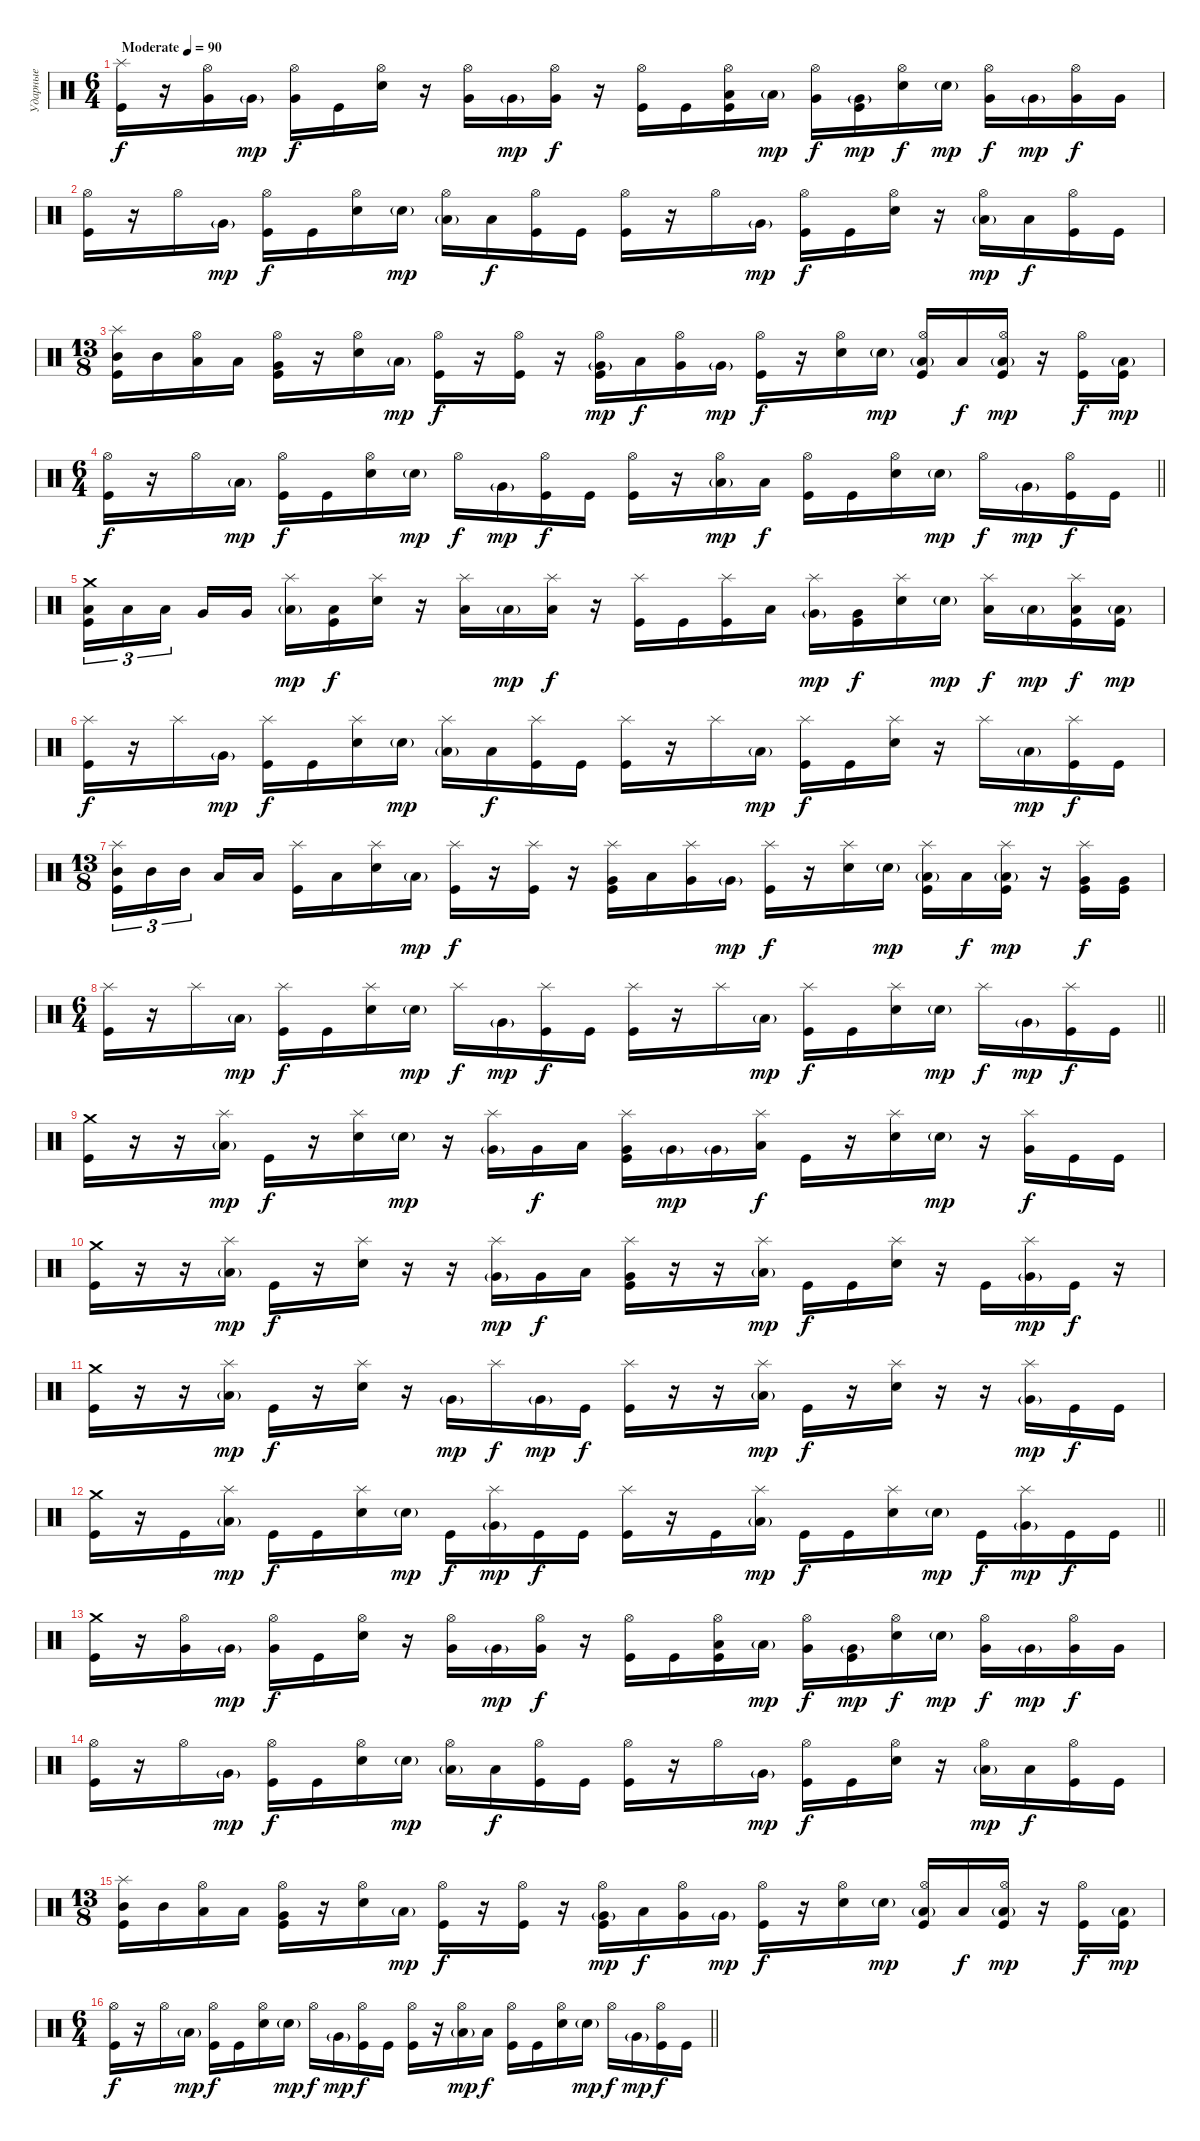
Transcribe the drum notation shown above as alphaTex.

\track ("Ударные" "Ударные") {instrument percussion}
\staff {score}
\articulation defaults
\ts (6 4)
\tempo (90 "Moderate")
\clef neutral
\ks c
("Splash (hit)" "Kick (hit)").16{dy f} r.16 ("Hi-Hat (open)" "Very Low Tom (hit)").16 "Very Low Tom (hit)"{g}.16{dy mp} ("Hi-Hat (open)" "Very Low Tom (hit)").16{dy f} "Kick (hit)".16 ("Hi-Hat (open)" "Electric Snare (hit)").16 r.16 ("Hi-Hat (open)" "Very Low Tom (hit)").16 "Very Low Tom (hit)"{g}.16{dy mp} ("Hi-Hat (open)" "Very Low Tom (hit)").16{dy f} r.16 ("Hi-Hat (open)" "Kick (hit)").16 "Kick (hit)".16 ("Hi-Hat (open)" "Low Tom (hit)" "Kick (hit)").16 "Low Tom (hit)"{g}.16{dy mp} ("Hi-Hat (open)" "Very Low Tom (hit)").16{dy f} ("Very Low Tom (hit)"{g} "Kick (hit)").16{dy mp} ("Hi-Hat (open)" "Electric Snare (hit)").16{dy f} "Electric Snare (hit)"{g}.16{dy mp} ("Hi-Hat (open)" "Very Low Tom (hit)").16{dy f} "Very Low Tom (hit)"{g}.16{dy mp} ("Hi-Hat (open)" "Very Low Tom (hit)").16{dy f} "Very Low Tom (hit)".16 |
("Hi-Hat (open)" "Kick (hit)").16 r.16 "Hi-Hat (open)".16 "Very Low Tom (hit)"{g}.16{dy mp} ("Hi-Hat (open)" "Kick (hit)").16{dy f} "Kick (hit)".16 ("Hi-Hat (open)" "Electric Snare (hit)").16 "Electric Snare (hit)"{g}.16{dy mp} ("Hi-Hat (open)" "Low Floor Tom (hit)"{g}).16 "Low Floor Tom (hit)".16{dy f} ("Hi-Hat (open)" "Kick (hit)").16 "Kick (hit)".16 ("Hi-Hat (open)" "Kick (hit)").16 r.16 "Hi-Hat (open)".16 "Very Low Tom (hit)"{g}.16{dy mp} ("Hi-Hat (open)" "Kick (hit)").16{dy f} "Kick (hit)".16 ("Hi-Hat (open)" "Electric Snare (hit)").16 r.16 ("Hi-Hat (open)" "Low Floor Tom (hit)"{g}).16{dy mp} "Low Floor Tom (hit)".16{dy f} ("Hi-Hat (open)" "Kick (hit)").16 "Kick (hit)".16 |
\ts (13 8)
("Splash (hit)" "Mid Tom (hit)" "Kick (hit)").16 "Mid Tom (hit)".16 ("Hi-Hat (open)" "Low Tom (hit)").16 "Low Tom (hit)".16 ("Hi-Hat (open)" "Very Low Tom (hit)" "Kick (hit)").16 r.16 ("Hi-Hat (open)" "Electric Snare (hit)").16 "Low Tom (hit)"{g}.16{dy mp} ("Hi-Hat (open)" "Kick (hit)").16{dy f} r.16 ("Hi-Hat (open)" "Kick (hit)").16 r.16 ("Hi-Hat (open)" "Very Low Tom (hit)"{g} "Kick (hit)").16{dy mp} "Low Floor Tom (hit)".16{dy f} ("Hi-Hat (open)" "Very Low Tom (hit)").16 "Very Low Tom (hit)"{g}.16{dy mp} ("Hi-Hat (open)" "Kick (hit)").16{dy f} r.16 ("Hi-Hat (open)" "Electric Snare (hit)").16 "Electric Snare (hit)"{g}.16{dy mp} ("Hi-Hat (open)" "Low Tom (hit)"{g} "Kick (hit)").16 "Low Tom (hit)".16{dy f} ("Hi-Hat (open)" "Low Tom (hit)"{g} "Kick (hit)").16{dy mp} r.16 ("Hi-Hat (open)" "Kick (hit)").16{dy f} ("Low Tom (hit)"{g} "Kick (hit)").16{dy mp} |
\ts (6 4)
\barLineRight lightlight
("Hi-Hat (open)" "Kick (hit)").16{dy f} r.16 "Hi-Hat (open)".16 "Low Floor Tom (hit)"{g}.16{dy mp} ("Hi-Hat (open)" "Kick (hit)").16{dy f} "Kick (hit)".16 ("Hi-Hat (open)" "Electric Snare (hit)").16 "Electric Snare (hit)"{g}.16{dy mp} "Hi-Hat (open)".16{dy f} "Very Low Tom (hit)"{g}.16{dy mp} ("Hi-Hat (open)" "Kick (hit)").16{dy f} "Kick (hit)".16 ("Hi-Hat (open)" "Kick (hit)").16 r.16 ("Hi-Hat (open)" "Low Floor Tom (hit)"{g}).16{dy mp} "Low Floor Tom (hit)".16{dy f} ("Hi-Hat (open)" "Kick (hit)").16 "Kick (hit)".16 ("Hi-Hat (open)" "Electric Snare (hit)").16 "Electric Snare (hit)"{g}.16{dy mp} "Hi-Hat (open)".16{dy f} "Very Low Tom (hit)"{g}.16{dy mp} ("Hi-Hat (open)" "Kick (hit)").16{dy f} "Kick (hit)".16 |
\section ("" "")
("Crash medium (hit)" "Low Tom (hit)" "Kick (hit)").16{tu (3 2)} "Low Tom (hit)".16{tu (3 2)} "Low Tom (hit)".16{tu (3 2) beam splitsecondary} "Very Low Tom (hit)".16 "Very Low Tom (hit)".16 ("Splash (hit)" "Low Floor Tom (hit)"{g}).16{dy mp} ("Low Floor Tom (hit)" "Kick (hit)").16{dy f} ("Splash (hit)" "Electric Snare (hit)").16 r.16 ("Splash (hit)" "Low Floor Tom (hit)").16 "Low Floor Tom (hit)"{g}.16{dy mp} ("Splash (hit)" "Low Floor Tom (hit)").16{dy f} r.16 ("Splash (hit)" "Kick (hit)").16 "Kick (hit)".16 ("Splash (hit)" "Kick (hit)").16 "Low Tom (hit)".16 ("Splash (hit)" "Very Low Tom (hit)"{g}).16{dy mp} ("Very Low Tom (hit)" "Kick (hit)").16{dy f} ("Splash (hit)" "Electric Snare (hit)").16 "Electric Snare (hit)"{g}.16{dy mp} ("Splash (hit)" "Low Floor Tom (hit)").16{dy f} "Low Floor Tom (hit)"{g}.16{dy mp} ("Splash (hit)" "Low Floor Tom (hit)" "Kick (hit)").16{dy f} ("Low Floor Tom (hit)"{g} "Kick (hit)").16{dy mp} |
("Splash (hit)" "Kick (hit)").16{dy f} r.16 "Splash (hit)".16 "Very Low Tom (hit)"{g}.16{dy mp} ("Splash (hit)" "Kick (hit)").16{dy f} "Kick (hit)".16 ("Splash (hit)" "Electric Snare (hit)").16 "Electric Snare (hit)"{g}.16{dy mp} ("Splash (hit)" "Low Floor Tom (hit)"{g}).16 "Low Floor Tom (hit)".16{dy f} ("Splash (hit)" "Kick (hit)").16 "Kick (hit)".16 ("Splash (hit)" "Kick (hit)").16 r.16 "Splash (hit)".16 "Low Floor Tom (hit)"{g}.16{dy mp} ("Splash (hit)" "Kick (hit)").16{dy f} "Kick (hit)".16 ("Splash (hit)" "Electric Snare (hit)").16 r.16 "Splash (hit)".16 "Low Floor Tom (hit)"{g}.16{dy mp} ("Splash (hit)" "Kick (hit)").16{dy f} "Kick (hit)".16 |
\ts (13 8)
("Splash (hit)" "Mid Tom (hit)" "Kick (hit)").16{tu (3 2)} "Mid Tom (hit)".16{tu (3 2)} "Mid Tom (hit)".16{tu (3 2)} "Low Tom (hit)".16 "Low Tom (hit)".16 ("Splash (hit)" "Kick (hit)").16 "Low Tom (hit)".16 ("Splash (hit)" "Electric Snare (hit)").16 "Low Tom (hit)"{g}.16{dy mp} ("Splash (hit)" "Kick (hit)").16{dy f} r.16 ("Splash (hit)" "Kick (hit)").16 r.16 ("Splash (hit)" "Very Low Tom (hit)" "Kick (hit)").16 "Low Floor Tom (hit)".16 ("Splash (hit)" "Very Low Tom (hit)").16 "Very Low Tom (hit)"{g}.16{dy mp} ("Splash (hit)" "Kick (hit)").16{dy f} r.16 ("Splash (hit)" "Electric Snare (hit)").16 "Electric Snare (hit)"{g}.16{dy mp} ("Splash (hit)" "Low Tom (hit)"{g} "Kick (hit)").16 "Low Tom (hit)".16{dy f} ("Splash (hit)" "Low Tom (hit)"{g} "Kick (hit)").16{dy mp} r.16 ("Splash (hit)" "Very Low Tom (hit)" "Kick (hit)").16{dy f} ("Very Low Tom (hit)" "Kick (hit)").16 |
\ts (6 4)
\barLineRight lightlight
("Splash (hit)" "Kick (hit)").16 r.16 "Splash (hit)".16 "Low Floor Tom (hit)"{g}.16{dy mp} ("Splash (hit)" "Kick (hit)").16{dy f} "Kick (hit)".16 ("Splash (hit)" "Electric Snare (hit)").16 "Electric Snare (hit)"{g}.16{dy mp} "Splash (hit)".16{dy f} "Very Low Tom (hit)"{g}.16{dy mp} ("Splash (hit)" "Kick (hit)").16{dy f} "Kick (hit)".16 ("Splash (hit)" "Kick (hit)").16 r.16 "Splash (hit)".16 "Low Floor Tom (hit)"{g}.16{dy mp} ("Splash (hit)" "Kick (hit)").16{dy f} "Kick (hit)".16 ("Splash (hit)" "Electric Snare (hit)").16 "Electric Snare (hit)"{g}.16{dy mp} "Splash (hit)".16{dy f} "Very Low Tom (hit)"{g}.16{dy mp} ("Splash (hit)" "Kick (hit)").16{dy f} "Kick (hit)".16 |
\section ("" "")
("Crash medium (hit)" "Kick (hit)").16 r.16 r.16 ("Splash (hit)" "Low Floor Tom (hit)"{g}).16{dy mp} "Kick (hit)".16{dy f} r.16 ("Splash (hit)" "Electric Snare (hit)").16 "Electric Snare (hit)"{g}.16{dy mp} r.16 ("Splash (hit)" "Very Low Tom (hit)"{g}).16 "Very Low Tom (hit)".16{dy f} "Low Tom (hit)".16 ("Splash (hit)" "Very Low Tom (hit)" "Kick (hit)").16 "Very Low Tom (hit)"{g}.16{dy mp} "Very Low Tom (hit)"{g}.16 ("Splash (hit)" "Low Floor Tom (hit)").16{dy f} "Kick (hit)".16 r.16 ("Splash (hit)" "Electric Snare (hit)").16 "Electric Snare (hit)"{g}.16{dy mp} r.16 ("Splash (hit)" "Very Low Tom (hit)").16{dy f} "Kick (hit)".16 "Kick (hit)".16 |
("Crash medium (hit)" "Kick (hit)").16 r.16 r.16 ("Splash (hit)" "Low Floor Tom (hit)"{g}).16{dy mp} "Kick (hit)".16{dy f} r.16 ("Splash (hit)" "Electric Snare (hit)").16 r.16 r.16 ("Splash (hit)" "Very Low Tom (hit)"{g}).16{dy mp} "Very Low Tom (hit)".16{dy f} "Low Tom (hit)".16 ("Splash (hit)" "Very Low Tom (hit)" "Kick (hit)").16 r.16 r.16 ("Splash (hit)" "Low Floor Tom (hit)"{g}).16{dy mp} "Kick (hit)".16{dy f} "Kick (hit)".16 ("Splash (hit)" "Electric Snare (hit)").16 r.16 "Kick (hit)".16 ("Splash (hit)" "Very Low Tom (hit)"{g}).16{dy mp} "Kick (hit)".16{dy f} r.16 |
("Crash medium (hit)" "Kick (hit)").16 r.16 r.16 ("Splash (hit)" "Low Floor Tom (hit)"{g}).16{dy mp} "Kick (hit)".16{dy f} r.16 ("Splash (hit)" "Electric Snare (hit)").16 r.16 "Very Low Tom (hit)"{g}.16{dy mp} "Splash (hit)".16{dy f} "Very Low Tom (hit)"{g}.16{dy mp} "Kick (hit)".16{dy f} ("Splash (hit)" "Kick (hit)").16 r.16 r.16 ("Splash (hit)" "Low Floor Tom (hit)"{g}).16{dy mp} "Kick (hit)".16{dy f} r.16 ("Splash (hit)" "Electric Snare (hit)").16 r.16 r.16 ("Splash (hit)" "Very Low Tom (hit)"{g}).16{dy mp} "Kick (hit)".16{dy f} "Kick (hit)".16 |
\barLineRight lightlight
("Crash medium (hit)" "Kick (hit)").16 r.16 "Kick (hit)".16 ("Splash (hit)" "Low Floor Tom (hit)"{g}).16{dy mp} "Kick (hit)".16{dy f} "Kick (hit)".16 ("Splash (hit)" "Electric Snare (hit)").16 "Electric Snare (hit)"{g}.16{dy mp} "Kick (hit)".16{dy f} ("Splash (hit)" "Very Low Tom (hit)"{g}).16{dy mp} "Kick (hit)".16{dy f} "Kick (hit)".16 ("Splash (hit)" "Kick (hit)").16 r.16 "Kick (hit)".16 ("Splash (hit)" "Low Floor Tom (hit)"{g}).16{dy mp} "Kick (hit)".16{dy f} "Kick (hit)".16 ("Splash (hit)" "Electric Snare (hit)").16 "Electric Snare (hit)"{g}.16{dy mp} "Kick (hit)".16{dy f} ("Splash (hit)" "Very Low Tom (hit)"{g}).16{dy mp} "Kick (hit)".16{dy f} "Kick (hit)".16 |
\section ("" "")
("Crash medium (hit)" "Kick (hit)").16 r.16 ("Hi-Hat (open)" "Very Low Tom (hit)").16 "Very Low Tom (hit)"{g}.16{dy mp} ("Hi-Hat (open)" "Very Low Tom (hit)").16{dy f} "Kick (hit)".16 ("Hi-Hat (open)" "Electric Snare (hit)").16 r.16 ("Hi-Hat (open)" "Very Low Tom (hit)").16 "Very Low Tom (hit)"{g}.16{dy mp} ("Hi-Hat (open)" "Very Low Tom (hit)").16{dy f} r.16 ("Hi-Hat (open)" "Kick (hit)").16 "Kick (hit)".16 ("Hi-Hat (open)" "Low Tom (hit)" "Kick (hit)").16 "Low Tom (hit)"{g}.16{dy mp} ("Hi-Hat (open)" "Very Low Tom (hit)").16{dy f} ("Very Low Tom (hit)"{g} "Kick (hit)").16{dy mp} ("Hi-Hat (open)" "Electric Snare (hit)").16{dy f} "Electric Snare (hit)"{g}.16{dy mp} ("Hi-Hat (open)" "Very Low Tom (hit)").16{dy f} "Very Low Tom (hit)"{g}.16{dy mp} ("Hi-Hat (open)" "Very Low Tom (hit)").16{dy f} "Very Low Tom (hit)".16 |
("Hi-Hat (open)" "Kick (hit)").16 r.16 "Hi-Hat (open)".16 "Very Low Tom (hit)"{g}.16{dy mp} ("Hi-Hat (open)" "Kick (hit)").16{dy f} "Kick (hit)".16 ("Hi-Hat (open)" "Electric Snare (hit)").16 "Electric Snare (hit)"{g}.16{dy mp} ("Hi-Hat (open)" "Low Floor Tom (hit)"{g}).16 "Low Floor Tom (hit)".16{dy f} ("Hi-Hat (open)" "Kick (hit)").16 "Kick (hit)".16 ("Hi-Hat (open)" "Kick (hit)").16 r.16 "Hi-Hat (open)".16 "Very Low Tom (hit)"{g}.16{dy mp} ("Hi-Hat (open)" "Kick (hit)").16{dy f} "Kick (hit)".16 ("Hi-Hat (open)" "Electric Snare (hit)").16 r.16 ("Hi-Hat (open)" "Low Floor Tom (hit)"{g}).16{dy mp} "Low Floor Tom (hit)".16{dy f} ("Hi-Hat (open)" "Kick (hit)").16 "Kick (hit)".16 |
\ts (13 8)
("Splash (hit)" "Mid Tom (hit)" "Kick (hit)").16 "Mid Tom (hit)".16 ("Hi-Hat (open)" "Low Tom (hit)").16 "Low Tom (hit)".16 ("Hi-Hat (open)" "Very Low Tom (hit)" "Kick (hit)").16 r.16 ("Hi-Hat (open)" "Electric Snare (hit)").16 "Low Tom (hit)"{g}.16{dy mp} ("Hi-Hat (open)" "Kick (hit)").16{dy f} r.16 ("Hi-Hat (open)" "Kick (hit)").16 r.16 ("Hi-Hat (open)" "Very Low Tom (hit)"{g} "Kick (hit)").16{dy mp} "Low Floor Tom (hit)".16{dy f} ("Hi-Hat (open)" "Very Low Tom (hit)").16 "Very Low Tom (hit)"{g}.16{dy mp} ("Hi-Hat (open)" "Kick (hit)").16{dy f} r.16 ("Hi-Hat (open)" "Electric Snare (hit)").16 "Electric Snare (hit)"{g}.16{dy mp} ("Hi-Hat (open)" "Low Tom (hit)"{g} "Kick (hit)").16 "Low Tom (hit)".16{dy f} ("Hi-Hat (open)" "Low Tom (hit)"{g} "Kick (hit)").16{dy mp} r.16 ("Hi-Hat (open)" "Kick (hit)").16{dy f} ("Low Tom (hit)"{g} "Kick (hit)").16{dy mp} |
\ts (6 4)
\barLineRight lightlight
("Hi-Hat (open)" "Kick (hit)").16{dy f} r.16 "Hi-Hat (open)".16 "Low Floor Tom (hit)"{g}.16{dy mp} ("Hi-Hat (open)" "Kick (hit)").16{dy f} "Kick (hit)".16 ("Hi-Hat (open)" "Electric Snare (hit)").16 "Electric Snare (hit)"{g}.16{dy mp} "Hi-Hat (open)".16{dy f} "Very Low Tom (hit)"{g}.16{dy mp} ("Hi-Hat (open)" "Kick (hit)").16{dy f} "Kick (hit)".16 ("Hi-Hat (open)" "Kick (hit)").16 r.16 ("Hi-Hat (open)" "Low Floor Tom (hit)"{g}).16{dy mp} "Low Floor Tom (hit)".16{dy f} ("Hi-Hat (open)" "Kick (hit)").16 "Kick (hit)".16 ("Hi-Hat (open)" "Electric Snare (hit)").16 "Electric Snare (hit)"{g}.16{dy mp} "Hi-Hat (open)".16{dy f} "Very Low Tom (hit)"{g}.16{dy mp} ("Hi-Hat (open)" "Kick (hit)").16{dy f} "Kick (hit)".16
